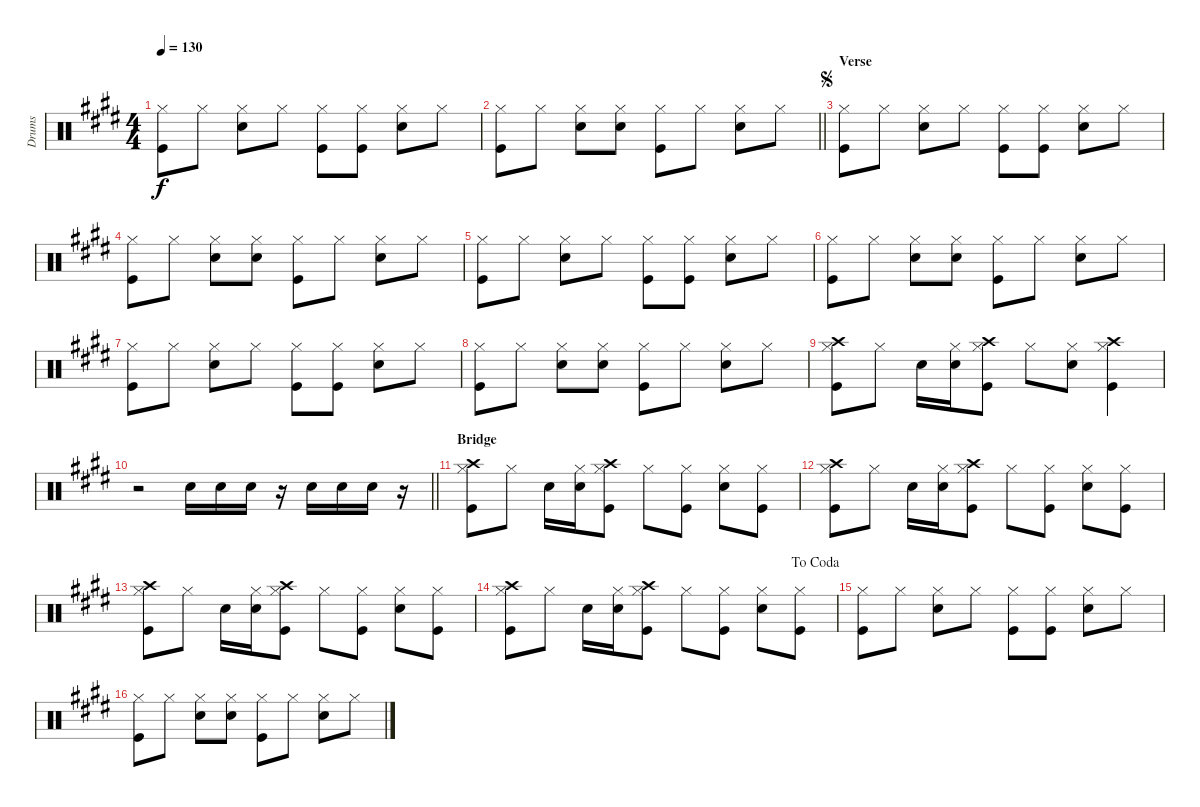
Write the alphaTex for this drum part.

\track ("Drums" "Drums") {instrument percussion}
\staff {score}
\articulation defaults
\ts (4 4)
\tempo 130
\clef neutral
\ks e
("Hi-Hat (closed)" "Kick (hit)").8{dy f} "Hi-Hat (closed)".8 ("Hi-Hat (closed)" "Snare (hit) 2").8 "Hi-Hat (closed)".8 ("Hi-Hat (closed)" "Kick (hit)").8 ("Hi-Hat (closed)" "Kick (hit)").8 ("Hi-Hat (closed)" "Snare (hit) 2").8 "Hi-Hat (closed)".8 |
\barLineRight lightlight
("Hi-Hat (closed)" "Kick (hit)").8 "Hi-Hat (closed)".8 ("Hi-Hat (closed)" "Snare (hit) 2").8 ("Hi-Hat (closed)" "Snare (hit) 2").8 ("Hi-Hat (closed)" "Kick (hit)").8 "Hi-Hat (closed)".8 ("Hi-Hat (closed)" "Snare (hit) 2").8 "Hi-Hat (closed)".8 |
\section ("" "Verse")
\jump segno
("Hi-Hat (closed)" "Kick (hit)").8 "Hi-Hat (closed)".8 ("Hi-Hat (closed)" "Snare (hit) 2").8 "Hi-Hat (closed)".8 ("Hi-Hat (closed)" "Kick (hit)").8 ("Hi-Hat (closed)" "Kick (hit)").8 ("Hi-Hat (closed)" "Snare (hit) 2").8 "Hi-Hat (closed)".8 |
("Hi-Hat (closed)" "Kick (hit)").8 "Hi-Hat (closed)".8 ("Hi-Hat (closed)" "Snare (hit) 2").8 ("Hi-Hat (closed)" "Snare (hit) 2").8 ("Hi-Hat (closed)" "Kick (hit)").8 "Hi-Hat (closed)".8 ("Hi-Hat (closed)" "Snare (hit) 2").8 "Hi-Hat (closed)".8 |
("Hi-Hat (closed)" "Kick (hit)").8 "Hi-Hat (closed)".8 ("Hi-Hat (closed)" "Snare (hit) 2").8 "Hi-Hat (closed)".8 ("Hi-Hat (closed)" "Kick (hit)").8 ("Hi-Hat (closed)" "Kick (hit)").8 ("Hi-Hat (closed)" "Snare (hit) 2").8 "Hi-Hat (closed)".8 |
("Hi-Hat (closed)" "Kick (hit)").8 "Hi-Hat (closed)".8 ("Hi-Hat (closed)" "Snare (hit) 2").8 ("Hi-Hat (closed)" "Snare (hit) 2").8 ("Hi-Hat (closed)" "Kick (hit)").8 "Hi-Hat (closed)".8 ("Hi-Hat (closed)" "Snare (hit) 2").8 "Hi-Hat (closed)".8 |
("Hi-Hat (closed)" "Kick (hit)").8 "Hi-Hat (closed)".8 ("Hi-Hat (closed)" "Snare (hit) 2").8 "Hi-Hat (closed)".8 ("Hi-Hat (closed)" "Kick (hit)").8 ("Hi-Hat (closed)" "Kick (hit)").8 ("Hi-Hat (closed)" "Snare (hit) 2").8 "Hi-Hat (closed)".8 |
("Hi-Hat (closed)" "Kick (hit)").8 "Hi-Hat (closed)".8 ("Hi-Hat (closed)" "Snare (hit) 2").8 ("Hi-Hat (closed)" "Snare (hit) 2").8 ("Hi-Hat (closed)" "Kick (hit)").8 "Hi-Hat (closed)".8 ("Hi-Hat (closed)" "Snare (hit) 2").8 "Hi-Hat (closed)".8 |
("Crash high (hit)" "Hi-Hat (closed)" "Kick (hit)").8 "Hi-Hat (closed)".8 "Snare (hit) 2".16 ("Hi-Hat (closed)" "Snare (hit) 2").16 ("Crash high (hit)" "Hi-Hat (closed)" "Kick (hit)").8 "Hi-Hat (closed)".8 ("Hi-Hat (closed)" "Snare (hit) 2").8 ("Crash high (hit)" "Hi-Hat (closed)" "Kick (hit)").4 |
\barLineRight lightlight
r.2 "Snare (hit) 2".16 "Snare (hit) 2".16 "Snare (hit) 2".16 r.16 "Snare (hit) 2".16 "Snare (hit) 2".16 "Snare (hit) 2".16 r.16 |
\section ("" "Bridge")
("Crash high (hit)" "Hi-Hat (closed)" "Kick (hit)").8 "Hi-Hat (closed)".8 "Snare (hit) 2".16 ("Hi-Hat (closed)" "Snare (hit) 2").16 ("Crash high (hit)" "Hi-Hat (closed)" "Kick (hit)").8 "Hi-Hat (closed)".8 ("Hi-Hat (closed)" "Kick (hit)").8 ("Hi-Hat (closed)" "Snare (hit) 2").8 ("Hi-Hat (closed)" "Kick (hit)").8 |
("Crash high (hit)" "Hi-Hat (closed)" "Kick (hit)").8 "Hi-Hat (closed)".8 "Snare (hit) 2".16 ("Hi-Hat (closed)" "Snare (hit) 2").16 ("Crash high (hit)" "Hi-Hat (closed)" "Kick (hit)").8 "Hi-Hat (closed)".8 ("Hi-Hat (closed)" "Kick (hit)").8 ("Hi-Hat (closed)" "Snare (hit) 2").8 ("Hi-Hat (closed)" "Kick (hit)").8 |
("Crash high (hit)" "Hi-Hat (closed)" "Kick (hit)").8 "Hi-Hat (closed)".8 "Snare (hit) 2".16 ("Hi-Hat (closed)" "Snare (hit) 2").16 ("Crash high (hit)" "Hi-Hat (closed)" "Kick (hit)").8 "Hi-Hat (closed)".8 ("Hi-Hat (closed)" "Kick (hit)").8 ("Hi-Hat (closed)" "Snare (hit) 2").8 ("Hi-Hat (closed)" "Kick (hit)").8 |
\jump dacoda
("Crash high (hit)" "Hi-Hat (closed)" "Kick (hit)").8 "Hi-Hat (closed)".8 "Snare (hit) 2".16 ("Hi-Hat (closed)" "Snare (hit) 2").16 ("Crash high (hit)" "Hi-Hat (closed)" "Kick (hit)").8 "Hi-Hat (closed)".8 ("Hi-Hat (closed)" "Kick (hit)").8 ("Hi-Hat (closed)" "Snare (hit) 2").8 ("Hi-Hat (closed)" "Kick (hit)").8 |
("Hi-Hat (closed)" "Kick (hit)").8 "Hi-Hat (closed)".8 ("Hi-Hat (closed)" "Snare (hit) 2").8 "Hi-Hat (closed)".8 ("Hi-Hat (closed)" "Kick (hit)").8 ("Hi-Hat (closed)" "Kick (hit)").8 ("Hi-Hat (closed)" "Snare (hit) 2").8 "Hi-Hat (closed)".8 |
("Hi-Hat (closed)" "Kick (hit)").8 "Hi-Hat (closed)".8 ("Hi-Hat (closed)" "Snare (hit) 2").8 ("Hi-Hat (closed)" "Snare (hit) 2").8 ("Hi-Hat (closed)" "Kick (hit)").8 "Hi-Hat (closed)".8 ("Hi-Hat (closed)" "Snare (hit) 2").8 "Hi-Hat (closed)".8
